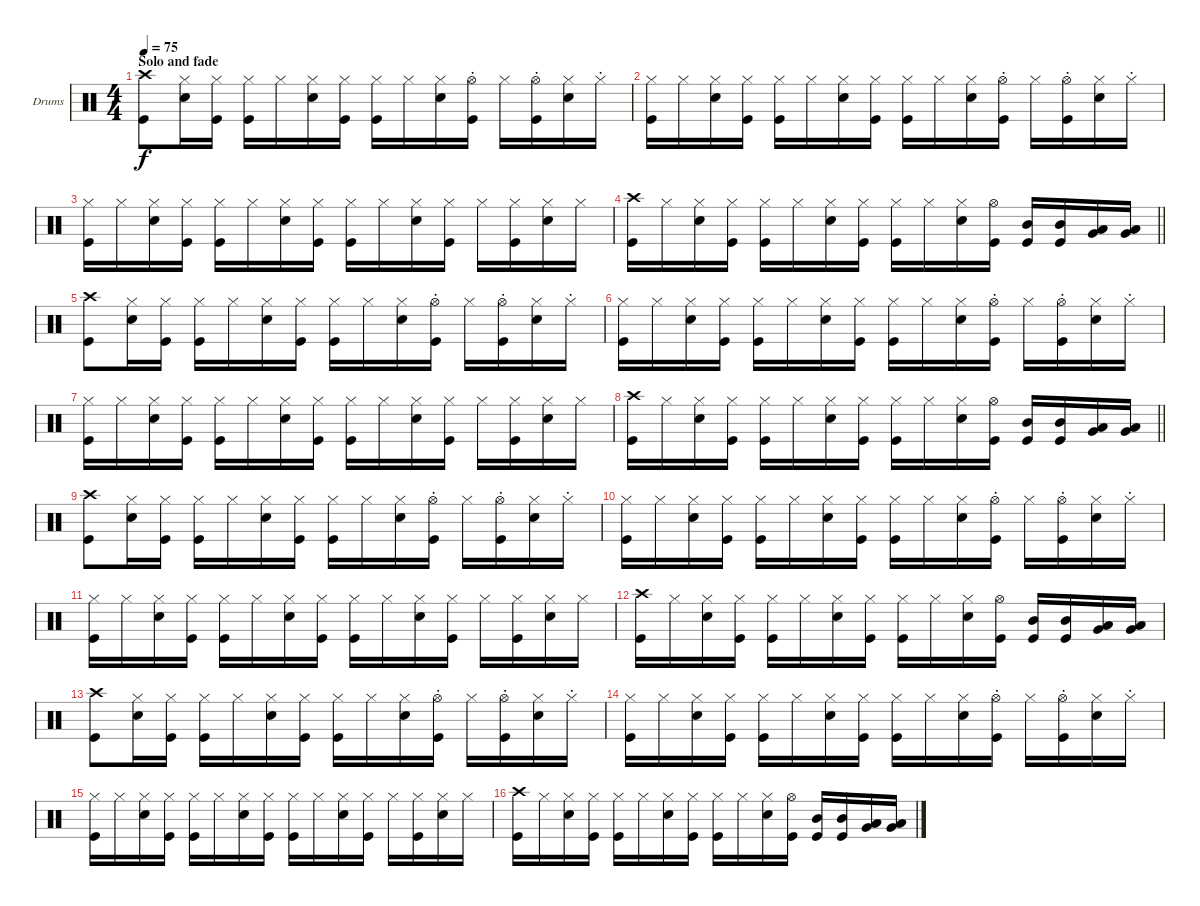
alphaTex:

\bracketExtendMode groupsimilarinstruments
\firstSystemTrackNameOrientation horizontal
\otherSystemsTrackNameOrientation horizontal
\track ("Drumkit" "Drums") {instrument percussion}
\staff {score}
\articulation defaults
\ts (4 4)
\section ("" "Solo and fade")
\tempo 75
\clef neutral
\ks c
("Crash high (hit)" "Kick (hit)").8{dy f} ("Hi-Hat (closed)" "Snare (hit) 2").16 ("Hi-Hat (closed)" "Kick (hit)").16 ("Hi-Hat (closed)" "Kick (hit)").16 "Hi-Hat (closed)".16 ("Hi-Hat (closed)" "Snare (hit) 2").16 ("Hi-Hat (closed)" "Kick (hit)").16 ("Hi-Hat (closed)" "Kick (hit)").16 "Hi-Hat (closed)".16 ("Hi-Hat (closed)" "Snare (hit) 2").16 ("Hi-Hat (open)"{st} "Kick (hit)").16 "Hi-Hat (closed)".16 ("Hi-Hat (open)"{st} "Kick (hit)").16 ("Hi-Hat (closed)" "Snare (hit) 2").16 "Hi-Hat (closed)"{st}.16 |
("Hi-Hat (closed)" "Kick (hit)").16 "Hi-Hat (closed)".16 ("Hi-Hat (closed)" "Snare (hit) 2").16 ("Hi-Hat (closed)" "Kick (hit)").16 ("Hi-Hat (closed)" "Kick (hit)").16 "Hi-Hat (closed)".16 ("Hi-Hat (closed)" "Snare (hit) 2").16 ("Hi-Hat (closed)" "Kick (hit)").16 ("Hi-Hat (closed)" "Kick (hit)").16 "Hi-Hat (closed)".16 ("Hi-Hat (closed)" "Snare (hit) 2").16 ("Hi-Hat (open)"{st} "Kick (hit)").16 "Hi-Hat (closed)".16 ("Hi-Hat (open)"{st} "Kick (hit)").16 ("Hi-Hat (closed)" "Snare (hit) 2").16 "Hi-Hat (closed)"{st}.16 |
("Hi-Hat (closed)" "Kick (hit)").16 "Hi-Hat (closed)".16 ("Hi-Hat (closed)" "Snare (hit) 2").16 ("Hi-Hat (closed)" "Kick (hit)").16 ("Hi-Hat (closed)" "Kick (hit)").16 "Hi-Hat (closed)".16 ("Hi-Hat (closed)" "Snare (hit) 2").16 ("Hi-Hat (closed)" "Kick (hit)").16 ("Hi-Hat (closed)" "Kick (hit)").16 "Hi-Hat (closed)".16 ("Hi-Hat (closed)" "Snare (hit) 2").16 ("Hi-Hat (closed)" "Kick (hit)").16 "Hi-Hat (closed)".16 ("Hi-Hat (closed)" "Kick (hit)").16 ("Hi-Hat (closed)" "Snare (hit) 2").16 "Hi-Hat (closed)".16 |
\barLineRight lightlight
("Crash high (hit)" "Kick (hit)").16 "Hi-Hat (closed)".16 ("Hi-Hat (closed)" "Snare (hit) 2").16 ("Hi-Hat (closed)" "Kick (hit)").16 ("Hi-Hat (closed)" "Kick (hit)").16 "Hi-Hat (closed)".16 ("Hi-Hat (closed)" "Snare (hit) 2").16 ("Hi-Hat (closed)" "Kick (hit)").16 ("Hi-Hat (closed)" "Kick (hit)").16 "Hi-Hat (closed)".16 ("Hi-Hat (closed)" "Snare (hit) 2").16 ("Hi-Hat (open)" "Kick (hit)").16 ("Mid Tom (hit)" "Kick (hit)").16 ("Mid Tom (hit)" "Kick (hit)").16 ("Low Tom (hit)" "Very Low Tom (hit)").16 ("Low Tom (hit)" "Very Low Tom (hit)").16 |
("Crash high (hit)" "Kick (hit)").8 ("Hi-Hat (closed)" "Snare (hit) 2").16 ("Hi-Hat (closed)" "Kick (hit)").16 ("Hi-Hat (closed)" "Kick (hit)").16 "Hi-Hat (closed)".16 ("Hi-Hat (closed)" "Snare (hit) 2").16 ("Hi-Hat (closed)" "Kick (hit)").16 ("Hi-Hat (closed)" "Kick (hit)").16 "Hi-Hat (closed)".16 ("Hi-Hat (closed)" "Snare (hit) 2").16 ("Hi-Hat (open)"{st} "Kick (hit)").16 "Hi-Hat (closed)".16 ("Hi-Hat (open)"{st} "Kick (hit)").16 ("Hi-Hat (closed)" "Snare (hit) 2").16 "Hi-Hat (closed)"{st}.16 |
("Hi-Hat (closed)" "Kick (hit)").16 "Hi-Hat (closed)".16 ("Hi-Hat (closed)" "Snare (hit) 2").16 ("Hi-Hat (closed)" "Kick (hit)").16 ("Hi-Hat (closed)" "Kick (hit)").16 "Hi-Hat (closed)".16 ("Hi-Hat (closed)" "Snare (hit) 2").16 ("Hi-Hat (closed)" "Kick (hit)").16 ("Hi-Hat (closed)" "Kick (hit)").16 "Hi-Hat (closed)".16 ("Hi-Hat (closed)" "Snare (hit) 2").16 ("Hi-Hat (open)"{st} "Kick (hit)").16 "Hi-Hat (closed)".16 ("Hi-Hat (open)"{st} "Kick (hit)").16 ("Hi-Hat (closed)" "Snare (hit) 2").16 "Hi-Hat (closed)"{st}.16 |
("Hi-Hat (closed)" "Kick (hit)").16 "Hi-Hat (closed)".16 ("Hi-Hat (closed)" "Snare (hit) 2").16 ("Hi-Hat (closed)" "Kick (hit)").16 ("Hi-Hat (closed)" "Kick (hit)").16 "Hi-Hat (closed)".16 ("Hi-Hat (closed)" "Snare (hit) 2").16 ("Hi-Hat (closed)" "Kick (hit)").16 ("Hi-Hat (closed)" "Kick (hit)").16 "Hi-Hat (closed)".16 ("Hi-Hat (closed)" "Snare (hit) 2").16 ("Hi-Hat (closed)" "Kick (hit)").16 "Hi-Hat (closed)".16 ("Hi-Hat (closed)" "Kick (hit)").16 ("Hi-Hat (closed)" "Snare (hit) 2").16 "Hi-Hat (closed)".16 |
\barLineRight lightlight
("Crash high (hit)" "Kick (hit)").16 "Hi-Hat (closed)".16 ("Hi-Hat (closed)" "Snare (hit) 2").16 ("Hi-Hat (closed)" "Kick (hit)").16 ("Hi-Hat (closed)" "Kick (hit)").16 "Hi-Hat (closed)".16 ("Hi-Hat (closed)" "Snare (hit) 2").16 ("Hi-Hat (closed)" "Kick (hit)").16 ("Hi-Hat (closed)" "Kick (hit)").16 "Hi-Hat (closed)".16 ("Hi-Hat (closed)" "Snare (hit) 2").16 ("Hi-Hat (open)" "Kick (hit)").16 ("Mid Tom (hit)" "Kick (hit)").16 ("Mid Tom (hit)" "Kick (hit)").16 ("Low Tom (hit)" "Very Low Tom (hit)").16 ("Low Tom (hit)" "Very Low Tom (hit)").16 |
("Crash high (hit)" "Kick (hit)").8 ("Hi-Hat (closed)" "Snare (hit) 2").16 ("Hi-Hat (closed)" "Kick (hit)").16 ("Hi-Hat (closed)" "Kick (hit)").16 "Hi-Hat (closed)".16 ("Hi-Hat (closed)" "Snare (hit) 2").16 ("Hi-Hat (closed)" "Kick (hit)").16 ("Hi-Hat (closed)" "Kick (hit)").16 "Hi-Hat (closed)".16 ("Hi-Hat (closed)" "Snare (hit) 2").16 ("Hi-Hat (open)"{st} "Kick (hit)").16 "Hi-Hat (closed)".16 ("Hi-Hat (open)"{st} "Kick (hit)").16 ("Hi-Hat (closed)" "Snare (hit) 2").16 "Hi-Hat (closed)"{st}.16 |
("Hi-Hat (closed)" "Kick (hit)").16 "Hi-Hat (closed)".16 ("Hi-Hat (closed)" "Snare (hit) 2").16 ("Hi-Hat (closed)" "Kick (hit)").16 ("Hi-Hat (closed)" "Kick (hit)").16 "Hi-Hat (closed)".16 ("Hi-Hat (closed)" "Snare (hit) 2").16 ("Hi-Hat (closed)" "Kick (hit)").16 ("Hi-Hat (closed)" "Kick (hit)").16 "Hi-Hat (closed)".16 ("Hi-Hat (closed)" "Snare (hit) 2").16 ("Hi-Hat (open)"{st} "Kick (hit)").16 "Hi-Hat (closed)".16 ("Hi-Hat (open)"{st} "Kick (hit)").16 ("Hi-Hat (closed)" "Snare (hit) 2").16 "Hi-Hat (closed)"{st}.16 |
("Hi-Hat (closed)" "Kick (hit)").16 "Hi-Hat (closed)".16 ("Hi-Hat (closed)" "Snare (hit) 2").16 ("Hi-Hat (closed)" "Kick (hit)").16 ("Hi-Hat (closed)" "Kick (hit)").16 "Hi-Hat (closed)".16 ("Hi-Hat (closed)" "Snare (hit) 2").16 ("Hi-Hat (closed)" "Kick (hit)").16 ("Hi-Hat (closed)" "Kick (hit)").16 "Hi-Hat (closed)".16 ("Hi-Hat (closed)" "Snare (hit) 2").16 ("Hi-Hat (closed)" "Kick (hit)").16 "Hi-Hat (closed)".16 ("Hi-Hat (closed)" "Kick (hit)").16 ("Hi-Hat (closed)" "Snare (hit) 2").16 "Hi-Hat (closed)".16 |
("Crash high (hit)" "Kick (hit)").16 "Hi-Hat (closed)".16 ("Hi-Hat (closed)" "Snare (hit) 2").16 ("Hi-Hat (closed)" "Kick (hit)").16 ("Hi-Hat (closed)" "Kick (hit)").16 "Hi-Hat (closed)".16 ("Hi-Hat (closed)" "Snare (hit) 2").16 ("Hi-Hat (closed)" "Kick (hit)").16 ("Hi-Hat (closed)" "Kick (hit)").16 "Hi-Hat (closed)".16 ("Hi-Hat (closed)" "Snare (hit) 2").16 ("Hi-Hat (open)" "Kick (hit)").16 ("Mid Tom (hit)" "Kick (hit)").16 ("Mid Tom (hit)" "Kick (hit)").16 ("Low Tom (hit)" "Very Low Tom (hit)").16 ("Low Tom (hit)" "Very Low Tom (hit)").16 |
("Crash high (hit)" "Kick (hit)").8 ("Hi-Hat (closed)" "Snare (hit) 2").16 ("Hi-Hat (closed)" "Kick (hit)").16 ("Hi-Hat (closed)" "Kick (hit)").16 "Hi-Hat (closed)".16 ("Hi-Hat (closed)" "Snare (hit) 2").16 ("Hi-Hat (closed)" "Kick (hit)").16 ("Hi-Hat (closed)" "Kick (hit)").16 "Hi-Hat (closed)".16 ("Hi-Hat (closed)" "Snare (hit) 2").16 ("Hi-Hat (open)"{st} "Kick (hit)").16 "Hi-Hat (closed)".16 ("Hi-Hat (open)"{st} "Kick (hit)").16 ("Hi-Hat (closed)" "Snare (hit) 2").16 "Hi-Hat (closed)"{st}.16 |
("Hi-Hat (closed)" "Kick (hit)").16 "Hi-Hat (closed)".16 ("Hi-Hat (closed)" "Snare (hit) 2").16 ("Hi-Hat (closed)" "Kick (hit)").16 ("Hi-Hat (closed)" "Kick (hit)").16 "Hi-Hat (closed)".16 ("Hi-Hat (closed)" "Snare (hit) 2").16 ("Hi-Hat (closed)" "Kick (hit)").16 ("Hi-Hat (closed)" "Kick (hit)").16 "Hi-Hat (closed)".16 ("Hi-Hat (closed)" "Snare (hit) 2").16 ("Hi-Hat (open)"{st} "Kick (hit)").16 "Hi-Hat (closed)".16 ("Hi-Hat (open)"{st} "Kick (hit)").16 ("Hi-Hat (closed)" "Snare (hit) 2").16 "Hi-Hat (closed)"{st}.16 |
("Hi-Hat (closed)" "Kick (hit)").16 "Hi-Hat (closed)".16 ("Hi-Hat (closed)" "Snare (hit) 2").16 ("Hi-Hat (closed)" "Kick (hit)").16 ("Hi-Hat (closed)" "Kick (hit)").16 "Hi-Hat (closed)".16 ("Hi-Hat (closed)" "Snare (hit) 2").16 ("Hi-Hat (closed)" "Kick (hit)").16 ("Hi-Hat (closed)" "Kick (hit)").16 "Hi-Hat (closed)".16 ("Hi-Hat (closed)" "Snare (hit) 2").16 ("Hi-Hat (closed)" "Kick (hit)").16 "Hi-Hat (closed)".16 ("Hi-Hat (closed)" "Kick (hit)").16 ("Hi-Hat (closed)" "Snare (hit) 2").16 "Hi-Hat (closed)".16 |
("Crash high (hit)" "Kick (hit)").16 "Hi-Hat (closed)".16 ("Hi-Hat (closed)" "Snare (hit) 2").16 ("Hi-Hat (closed)" "Kick (hit)").16 ("Hi-Hat (closed)" "Kick (hit)").16 "Hi-Hat (closed)".16 ("Hi-Hat (closed)" "Snare (hit) 2").16 ("Hi-Hat (closed)" "Kick (hit)").16 ("Hi-Hat (closed)" "Kick (hit)").16 "Hi-Hat (closed)".16 ("Hi-Hat (closed)" "Snare (hit) 2").16 ("Hi-Hat (open)" "Kick (hit)").16 ("Mid Tom (hit)" "Kick (hit)").16 ("Mid Tom (hit)" "Kick (hit)").16 ("Low Tom (hit)" "Very Low Tom (hit)").16 ("Low Tom (hit)" "Very Low Tom (hit)").16
